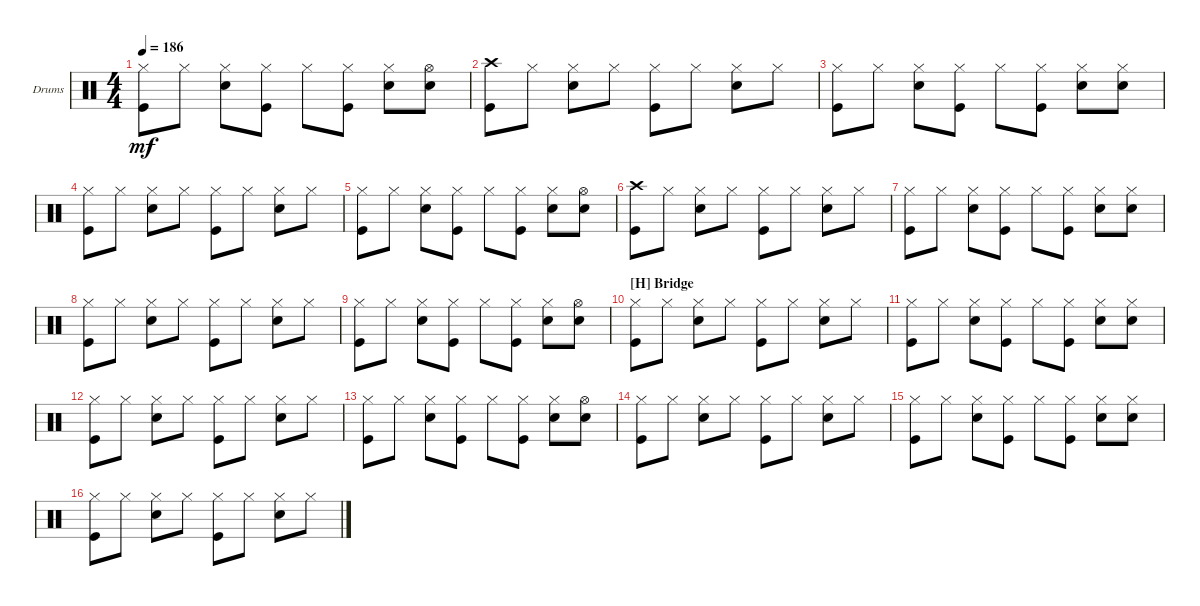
\bracketExtendMode groupsimilarinstruments
\firstSystemTrackNameOrientation horizontal
\otherSystemsTrackNameOrientation horizontal
\track ("Drumkit" "Drums") {instrument percussion}
\staff {score}
\articulation defaults
\ts (4 4)
\tempo 186
\clef neutral
\ks c
("Hi-Hat (closed)" "Kick (hit)").8{dy mf} "Hi-Hat (closed)".8 ("Hi-Hat (closed)" "Snare (hit) 2").8 ("Hi-Hat (closed)" "Kick (hit)").8 "Hi-Hat (closed)".8 ("Hi-Hat (closed)" "Kick (hit)").8 ("Hi-Hat (closed)" "Snare (hit) 2").8 ("Hi-Hat (open)" "Snare (hit) 2").8 |
("Crash high (hit)" "Kick (hit)").8 "Hi-Hat (closed)".8 ("Hi-Hat (closed)" "Snare (hit) 2").8 "Hi-Hat (closed)".8 ("Hi-Hat (closed)" "Kick (hit)").8 "Hi-Hat (closed)".8 ("Hi-Hat (closed)" "Snare (hit) 2").8 "Hi-Hat (closed)".8 |
("Hi-Hat (closed)" "Kick (hit)").8 "Hi-Hat (closed)".8 ("Hi-Hat (closed)" "Snare (hit) 2").8 ("Hi-Hat (closed)" "Kick (hit)").8 "Hi-Hat (closed)".8 ("Hi-Hat (closed)" "Kick (hit)").8 ("Hi-Hat (closed)" "Snare (hit) 2").8 ("Hi-Hat (closed)" "Snare (hit) 2").8 |
("Hi-Hat (closed)" "Kick (hit)").8 "Hi-Hat (closed)".8 ("Hi-Hat (closed)" "Snare (hit) 2").8 "Hi-Hat (closed)".8 ("Hi-Hat (closed)" "Kick (hit)").8 "Hi-Hat (closed)".8 ("Hi-Hat (closed)" "Snare (hit) 2").8 "Hi-Hat (closed)".8 |
("Hi-Hat (closed)" "Kick (hit)").8 "Hi-Hat (closed)".8 ("Hi-Hat (closed)" "Snare (hit) 2").8 ("Hi-Hat (closed)" "Kick (hit)").8 "Hi-Hat (closed)".8 ("Hi-Hat (closed)" "Kick (hit)").8 ("Hi-Hat (closed)" "Snare (hit) 2").8 ("Hi-Hat (open)" "Snare (hit) 2").8 |
("Crash high (hit)" "Kick (hit)").8 "Hi-Hat (closed)".8 ("Hi-Hat (closed)" "Snare (hit) 2").8 "Hi-Hat (closed)".8 ("Hi-Hat (closed)" "Kick (hit)").8 "Hi-Hat (closed)".8 ("Hi-Hat (closed)" "Snare (hit) 2").8 "Hi-Hat (closed)".8 |
("Hi-Hat (closed)" "Kick (hit)").8 "Hi-Hat (closed)".8 ("Hi-Hat (closed)" "Snare (hit) 2").8 ("Hi-Hat (closed)" "Kick (hit)").8 "Hi-Hat (closed)".8 ("Hi-Hat (closed)" "Kick (hit)").8 ("Hi-Hat (closed)" "Snare (hit) 2").8 ("Hi-Hat (closed)" "Snare (hit) 2").8 |
("Hi-Hat (closed)" "Kick (hit)").8 "Hi-Hat (closed)".8 ("Hi-Hat (closed)" "Snare (hit) 2").8 "Hi-Hat (closed)".8 ("Hi-Hat (closed)" "Kick (hit)").8 "Hi-Hat (closed)".8 ("Hi-Hat (closed)" "Snare (hit) 2").8 "Hi-Hat (closed)".8 |
("Hi-Hat (closed)" "Kick (hit)").8 "Hi-Hat (closed)".8 ("Hi-Hat (closed)" "Snare (hit) 2").8 ("Hi-Hat (closed)" "Kick (hit)").8 "Hi-Hat (closed)".8 ("Hi-Hat (closed)" "Kick (hit)").8 ("Hi-Hat (closed)" "Snare (hit) 2").8 ("Hi-Hat (open)" "Snare (hit) 2").8 |
\section ("H" "Bridge")
("Hi-Hat (closed)" "Kick (hit)").8 "Hi-Hat (closed)".8 ("Hi-Hat (closed)" "Snare (hit) 2").8 "Hi-Hat (closed)".8 ("Hi-Hat (closed)" "Kick (hit)").8 "Hi-Hat (closed)".8 ("Hi-Hat (closed)" "Snare (hit) 2").8 "Hi-Hat (closed)".8 |
("Hi-Hat (closed)" "Kick (hit)").8 "Hi-Hat (closed)".8 ("Hi-Hat (closed)" "Snare (hit) 2").8 ("Hi-Hat (closed)" "Kick (hit)").8 "Hi-Hat (closed)".8 ("Hi-Hat (closed)" "Kick (hit)").8 ("Hi-Hat (closed)" "Snare (hit) 2").8 ("Hi-Hat (closed)" "Snare (hit) 2").8 |
("Hi-Hat (closed)" "Kick (hit)").8 "Hi-Hat (closed)".8 ("Hi-Hat (closed)" "Snare (hit) 2").8 "Hi-Hat (closed)".8 ("Hi-Hat (closed)" "Kick (hit)").8 "Hi-Hat (closed)".8 ("Hi-Hat (closed)" "Snare (hit) 2").8 "Hi-Hat (closed)".8 |
("Hi-Hat (closed)" "Kick (hit)").8 "Hi-Hat (closed)".8 ("Hi-Hat (closed)" "Snare (hit) 2").8 ("Hi-Hat (closed)" "Kick (hit)").8 "Hi-Hat (closed)".8 ("Hi-Hat (closed)" "Kick (hit)").8 ("Hi-Hat (closed)" "Snare (hit) 2").8 ("Hi-Hat (open)" "Snare (hit) 2").8 |
("Hi-Hat (closed)" "Kick (hit)").8 "Hi-Hat (closed)".8 ("Hi-Hat (closed)" "Snare (hit) 2").8 "Hi-Hat (closed)".8 ("Hi-Hat (closed)" "Kick (hit)").8 "Hi-Hat (closed)".8 ("Hi-Hat (closed)" "Snare (hit) 2").8 "Hi-Hat (closed)".8 |
("Hi-Hat (closed)" "Kick (hit)").8 "Hi-Hat (closed)".8 ("Hi-Hat (closed)" "Snare (hit) 2").8 ("Hi-Hat (closed)" "Kick (hit)").8 "Hi-Hat (closed)".8 ("Hi-Hat (closed)" "Kick (hit)").8 ("Hi-Hat (closed)" "Snare (hit) 2").8 ("Hi-Hat (closed)" "Snare (hit) 2").8 |
("Hi-Hat (closed)" "Kick (hit)").8 "Hi-Hat (closed)".8 ("Hi-Hat (closed)" "Snare (hit) 2").8 "Hi-Hat (closed)".8 ("Hi-Hat (closed)" "Kick (hit)").8 "Hi-Hat (closed)".8 ("Hi-Hat (closed)" "Snare (hit) 2").8 "Hi-Hat (closed)".8
